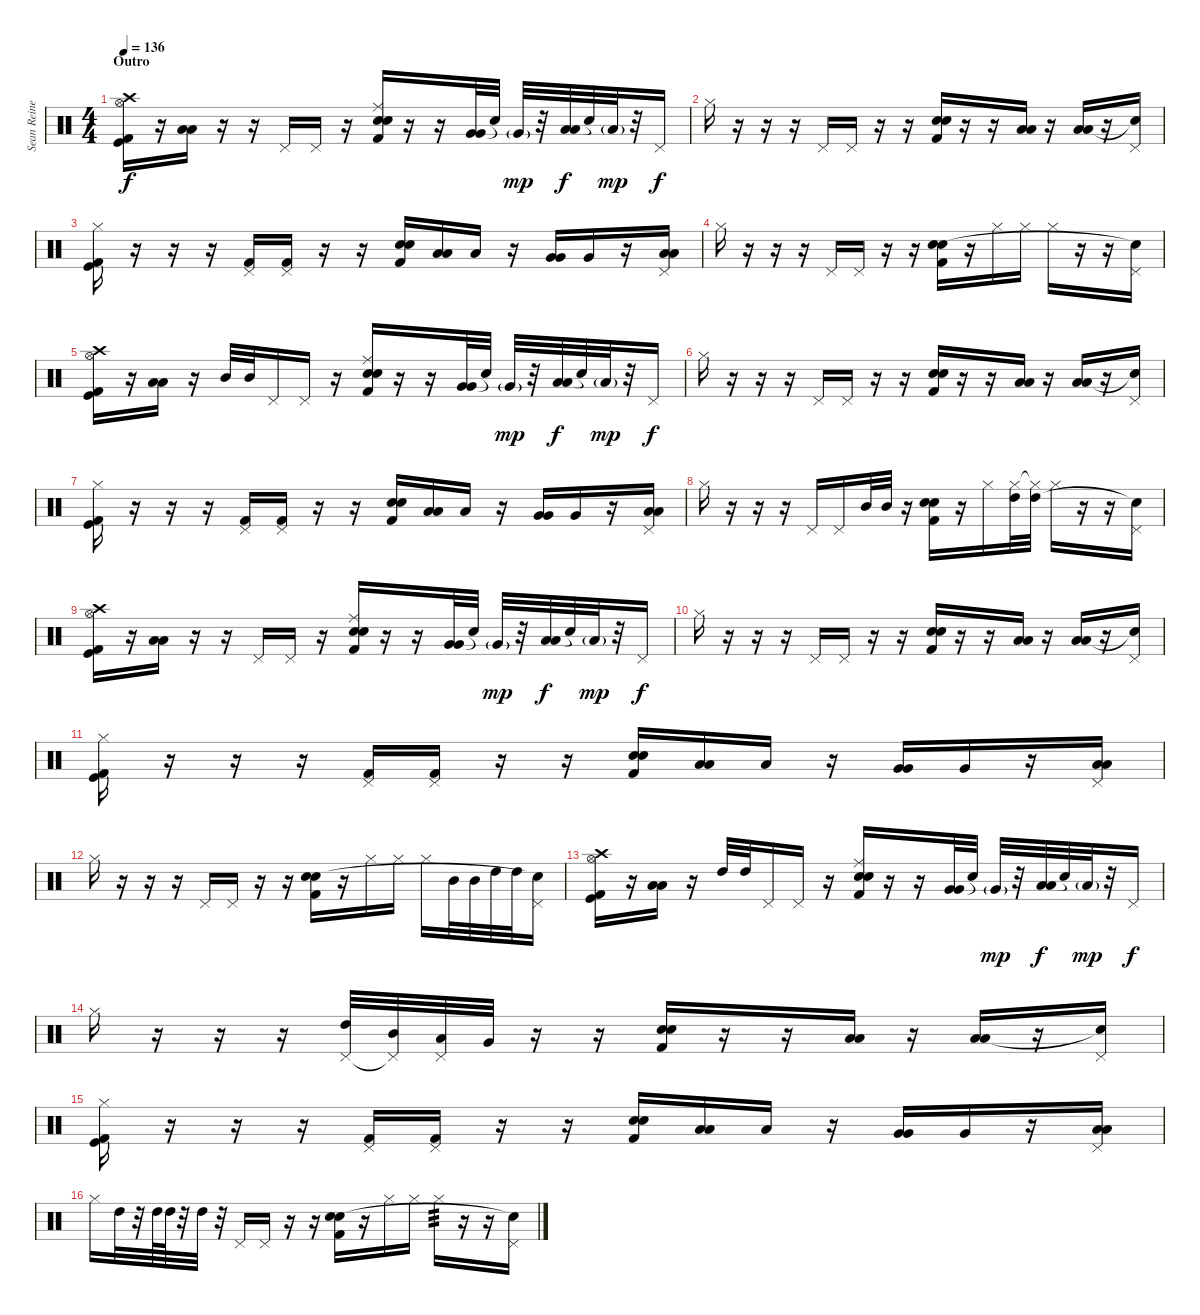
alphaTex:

\track ("Sean Reinert" "Sean Reine") {instrument percussion}
\staff {score}
\articulation defaults
\ts (4 4)
\section ("" "Outro")
\tempo 136
\clef neutral
\ks c
("Crash high (hit)" "Hi-Hat (open)" "Kick (hit)" "Kick (hit) 2").16{dy f} r.16 ("Low Floor Tom (hit)" "Low Floor Tom (hit)").16 r.16 r.16 "Pedal Hi-Hat (hit)".16 "Pedal Hi-Hat (hit)".16 r.16 ("Ride (middle)" "Electric Snare (hit)" "Snare (hit) 2" "Kick (hit) 2").16 r.16 r.16 ("Very Low Tom (hit)" "Very Low Tom (hit)").32 "Snare (hit)"{t}.32 "Very Low Tom (hit)"{g}.32{dy mp} r.32 ("Low Tom (hit)" "Low Tom (hit)").32{dy f} "Snare (hit)"{t}.32 "Low Tom (hit)"{g}.32{dy mp} r.32 "Pedal Hi-Hat (hit)".16{dy f} |
"Hi-Hat (closed)".16 r.16 r.16 r.16 "Pedal Hi-Hat (hit)".16 "Pedal Hi-Hat (hit)".16 r.16 r.16 ("Electric Snare (hit)" "Snare (hit) 2" "Kick (hit) 2").16 r.16 r.16 ("Low Floor Tom (hit)" "Low Floor Tom (hit)").16 r.16 ("Low Floor Tom (hit)" "Low Floor Tom (hit)").16 r.16 ("Pedal Hi-Hat (hit)" "Snare (hit)"{t}).16 |
("Hi-Hat (closed)" "Kick (hit) 2" "Kick (hit)").16 r.16 r.16 r.16 ("Pedal Hi-Hat (hit)" "Kick (hit) 2").16 ("Pedal Hi-Hat (hit)" "Kick (hit) 2").16 r.16 r.16 ("Electric Snare (hit)" "Snare (hit) 2" "Kick (hit) 2").16 ("Low Tom (hit)" "Low Tom (hit)").16 "Low Tom (hit)".16 r.16 ("Very Low Tom (hit)" "Very Low Tom (hit)").16 "Very Low Tom (hit)".16 r.16 ("Pedal Hi-Hat (hit)" "Low Floor Tom (hit)" "Low Floor Tom (hit)").16 |
"Hi-Hat (closed)".16 r.16 r.16 r.16 "Pedal Hi-Hat (hit)".16 "Pedal Hi-Hat (hit)".16 r.16 r.16 ("Electric Snare (hit)" "Snare (hit) 2" "Kick (hit) 2").16 r.16 "Hi-Hat (closed)".16 "Hi-Hat (closed)".16 "Hi-Hat (closed)".16 r.16 r.16 ("Pedal Hi-Hat (hit)" "Snare (hit)"{t}).16 |
("Crash high (hit)" "Hi-Hat (open)" "Kick (hit)" "Kick (hit) 2").16 r.16 ("Low Floor Tom (hit)" "Low Floor Tom (hit)").16 r.16 "Mid Tom (hit)".32 "Mid Tom (hit)".32 "Pedal Hi-Hat (hit)".16 "Pedal Hi-Hat (hit)".16 r.16 ("Ride (middle)" "Electric Snare (hit)" "Snare (hit) 2" "Kick (hit) 2").16 r.16 r.16 ("Very Low Tom (hit)" "Very Low Tom (hit)").32 "Snare (hit)"{t}.32 "Very Low Tom (hit)"{g}.32{dy mp} r.32 ("Low Tom (hit)" "Low Tom (hit)").32{dy f} "Snare (hit)"{t}.32 "Low Tom (hit)"{g}.32{dy mp} r.32 "Pedal Hi-Hat (hit)".16{dy f} |
"Hi-Hat (closed)".16 r.16 r.16 r.16 "Pedal Hi-Hat (hit)".16 "Pedal Hi-Hat (hit)".16 r.16 r.16 ("Electric Snare (hit)" "Snare (hit) 2" "Kick (hit) 2").16 r.16 r.16 ("Low Floor Tom (hit)" "Low Floor Tom (hit)").16 r.16 ("Low Floor Tom (hit)" "Low Floor Tom (hit)").16 r.16 ("Pedal Hi-Hat (hit)" "Snare (hit)"{t}).16 |
("Hi-Hat (closed)" "Kick (hit) 2" "Kick (hit)").16 r.16 r.16 r.16 ("Pedal Hi-Hat (hit)" "Kick (hit) 2").16 ("Pedal Hi-Hat (hit)" "Kick (hit) 2").16 r.16 r.16 ("Electric Snare (hit)" "Snare (hit) 2" "Kick (hit) 2").16 ("Low Tom (hit)" "Low Tom (hit)").16 "Low Tom (hit)".16 r.16 ("Very Low Tom (hit)" "Very Low Tom (hit)").16 "Very Low Tom (hit)".16 r.16 ("Pedal Hi-Hat (hit)" "Low Floor Tom (hit)" "Low Floor Tom (hit)").16 |
"Hi-Hat (closed)".16 r.16 r.16 r.16 "Pedal Hi-Hat (hit)".16 "Pedal Hi-Hat (hit)".16 "Mid Tom (hit)".32 "Mid Tom (hit)".32 r.16 ("Electric Snare (hit)" "Snare (hit) 2" "Kick (hit) 2").16 r.16 "Hi-Hat (closed)".16 ("Hi-Hat (closed)" "High Tom (hit)").32 ("Hi-Hat (closed)"{t} "High Tom (hit)").32 "Hi-Hat (closed)".16 r.16 r.16 ("Pedal Hi-Hat (hit)" "Snare (hit)"{t}).16 |
("Crash high (hit)" "Hi-Hat (open)" "Kick (hit)" "Kick (hit) 2").16 r.16 ("Low Floor Tom (hit)" "Low Floor Tom (hit)").16 r.16 r.16 "Pedal Hi-Hat (hit)".16 "Pedal Hi-Hat (hit)".16 r.16 ("Ride (middle)" "Electric Snare (hit)" "Snare (hit) 2" "Kick (hit) 2").16 r.16 r.16 ("Very Low Tom (hit)" "Very Low Tom (hit)").32 "Snare (hit)"{t}.32 "Very Low Tom (hit)"{g}.32{dy mp} r.32 ("Low Tom (hit)" "Low Tom (hit)").32{dy f} "Snare (hit)"{t}.32 "Low Tom (hit)"{g}.32{dy mp} r.32 "Pedal Hi-Hat (hit)".16{dy f} |
"Hi-Hat (closed)".16 r.16 r.16 r.16 "Pedal Hi-Hat (hit)".16 "Pedal Hi-Hat (hit)".16 r.16 r.16 ("Electric Snare (hit)" "Snare (hit) 2" "Kick (hit) 2").16 r.16 r.16 ("Low Floor Tom (hit)" "Low Floor Tom (hit)").16 r.16 ("Low Floor Tom (hit)" "Low Floor Tom (hit)").16 r.16 ("Pedal Hi-Hat (hit)" "Snare (hit)"{t}).16 |
("Hi-Hat (closed)" "Kick (hit) 2" "Kick (hit)").16 r.16 r.16 r.16 ("Pedal Hi-Hat (hit)" "Kick (hit) 2").16 ("Pedal Hi-Hat (hit)" "Kick (hit) 2").16 r.16 r.16 ("Electric Snare (hit)" "Snare (hit) 2" "Kick (hit) 2").16 ("Low Tom (hit)" "Low Tom (hit)").16 "Low Tom (hit)".16 r.16 ("Very Low Tom (hit)" "Very Low Tom (hit)").16 "Very Low Tom (hit)".16 r.16 ("Pedal Hi-Hat (hit)" "Low Floor Tom (hit)" "Low Floor Tom (hit)").16 |
"Hi-Hat (closed)".16 r.16 r.16 r.16 "Pedal Hi-Hat (hit)".16 "Pedal Hi-Hat (hit)".16 r.16 r.16 ("Electric Snare (hit)" "Snare (hit) 2" "Kick (hit) 2").16 r.16 "Hi-Hat (closed)".16 "Hi-Hat (closed)".16 "Hi-Hat (closed)".16 "Mid Tom (hit)".32 "Mid Tom (hit)".32 "High Tom (hit)".32 "High Tom (hit)".32 ("Pedal Hi-Hat (hit)" "Snare (hit)"{t}).16 |
("Crash high (hit)" "Hi-Hat (open)" "Kick (hit)" "Kick (hit) 2").16 r.16 ("Low Floor Tom (hit)" "Low Floor Tom (hit)").16 r.16 "High Tom (hit)".32 "High Tom (hit)".32 "Pedal Hi-Hat (hit)".16 "Pedal Hi-Hat (hit)".16 r.16 ("Ride (middle)" "Electric Snare (hit)" "Snare (hit) 2" "Kick (hit) 2").16 r.16 r.16 ("Very Low Tom (hit)" "Very Low Tom (hit)").32 "Snare (hit)"{t}.32 "Very Low Tom (hit)"{g}.32{dy mp} r.32 ("Low Tom (hit)" "Low Tom (hit)").32{dy f} "Snare (hit)"{t}.32 "Low Tom (hit)"{g}.32{dy mp} r.32 "Pedal Hi-Hat (hit)".16{dy f} |
"Hi-Hat (closed)".16 r.16 r.16 r.16 ("Pedal Hi-Hat (hit)" "High Tom (hit)").32 ("Pedal Hi-Hat (hit)"{t} "Mid Tom (hit)").32 ("Pedal Hi-Hat (hit)" "Low Tom (hit)").32 "Very Low Tom (hit)".32 r.16 r.16 ("Electric Snare (hit)" "Snare (hit) 2" "Kick (hit) 2").16 r.16 r.16 ("Low Floor Tom (hit)" "Low Floor Tom (hit)").16 r.16 ("Low Floor Tom (hit)" "Low Floor Tom (hit)").16 r.16 ("Pedal Hi-Hat (hit)" "Snare (hit)"{t}).16 |
("Hi-Hat (closed)" "Kick (hit) 2" "Kick (hit)").16 r.16 r.16 r.16 ("Pedal Hi-Hat (hit)" "Kick (hit) 2").16 ("Pedal Hi-Hat (hit)" "Kick (hit) 2").16 r.16 r.16 ("Electric Snare (hit)" "Snare (hit) 2" "Kick (hit) 2").16 ("Low Tom (hit)" "Low Tom (hit)").16 "Low Tom (hit)".16 r.16 ("Very Low Tom (hit)" "Very Low Tom (hit)").16 "Very Low Tom (hit)".16 r.16 ("Pedal Hi-Hat (hit)" "Low Floor Tom (hit)" "Low Floor Tom (hit)").16 |
"Hi-Hat (closed)".16 "High Tom (hit)".32 r.32 "High Tom (hit)".64 "High Tom (hit)".64 r.32 "High Tom (hit)".32 r.32 "Pedal Hi-Hat (hit)".16 "Pedal Hi-Hat (hit)".16 r.16 r.16 ("Electric Snare (hit)" "Snare (hit) 2" "Kick (hit) 2").16 r.16 "Hi-Hat (closed)".16 "Hi-Hat (closed)".16 "Hi-Hat (closed)".16{tp 3} r.16 r.16 ("Pedal Hi-Hat (hit)" "Snare (hit)"{t}).16
